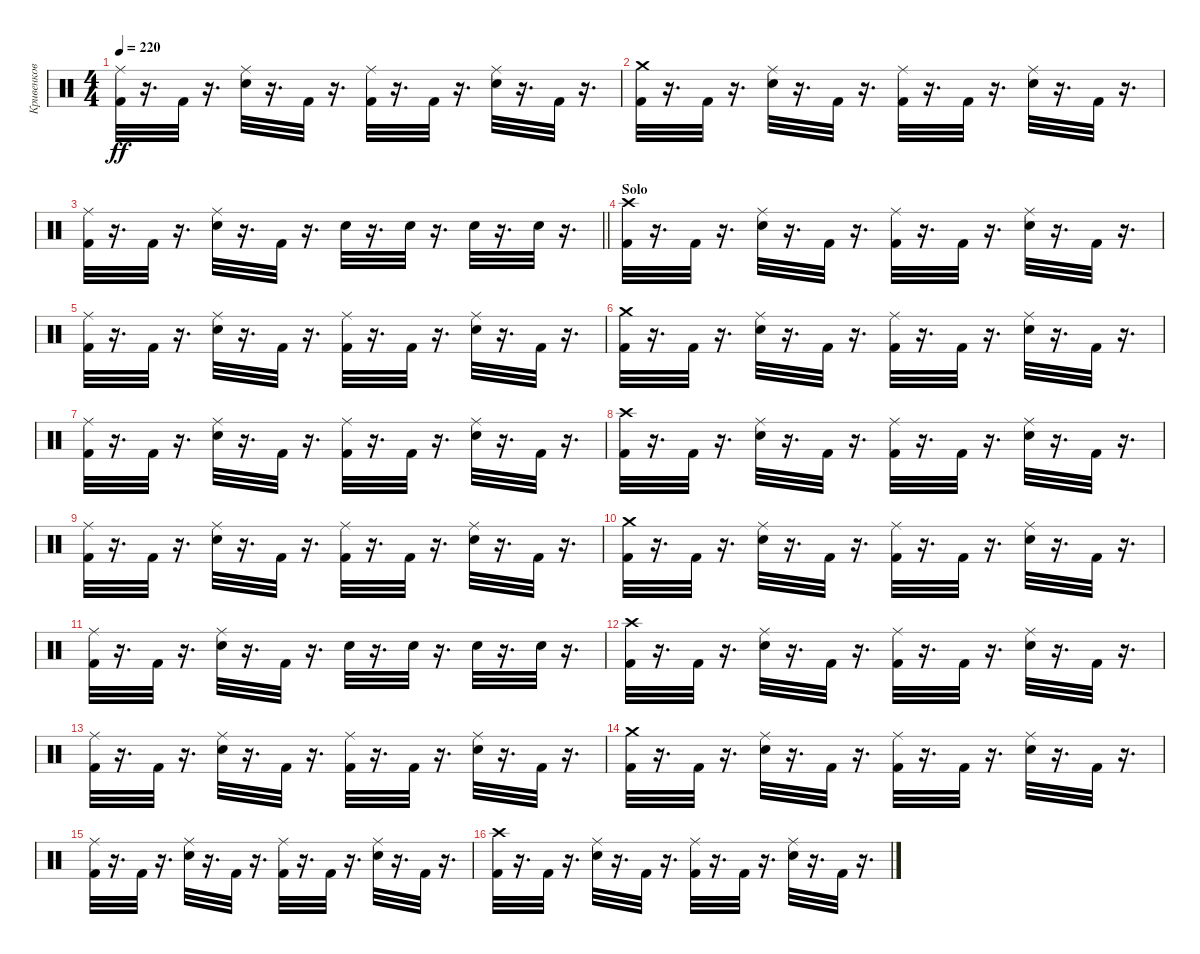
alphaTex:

\track ("Кривенков" "Кривенков") {instrument percussion}
\staff {score}
\articulation defaults
\ts (4 4)
\tempo 220
\clef neutral
\ks c
("Ride (middle)" "Kick (hit) 2").32{dy ff} r.16{d} "Kick (hit) 2".32 r.16{d} ("Ride (middle)" "Electric Snare (hit)").32 r.16{d} "Kick (hit) 2".32 r.16{d} ("Ride (middle)" "Kick (hit) 2").32 r.16{d} "Kick (hit) 2".32 r.16{d} ("Ride (middle)" "Electric Snare (hit)").32 r.16{d} "Kick (hit) 2".32 r.16{d} |
("Crash medium (hit)" "Kick (hit) 2").32 r.16{d} "Kick (hit) 2".32 r.16{d} ("Ride (middle)" "Electric Snare (hit)").32 r.16{d} "Kick (hit) 2".32 r.16{d} ("Ride (middle)" "Kick (hit) 2").32 r.16{d} "Kick (hit) 2".32 r.16{d} ("Ride (middle)" "Electric Snare (hit)").32 r.16{d} "Kick (hit) 2".32 r.16{d} |
\barLineRight lightlight
("Ride (middle)" "Kick (hit) 2").32 r.16{d} "Kick (hit) 2".32 r.16{d} ("Ride (middle)" "Electric Snare (hit)").32 r.16{d} "Kick (hit) 2".32 r.16{d} "Electric Snare (hit)".32 r.16{d} "Electric Snare (hit)".32 r.16{d} "Electric Snare (hit)".32 r.16{d} "Electric Snare (hit)".32 r.16{d} |
\section ("" "Solo")
("Crash high (hit)" "Kick (hit) 2").32 r.16{d} "Kick (hit) 2".32 r.16{d} ("Ride (middle)" "Electric Snare (hit)").32 r.16{d} "Kick (hit) 2".32 r.16{d} ("Ride (middle)" "Kick (hit) 2").32 r.16{d} "Kick (hit) 2".32 r.16{d} ("Ride (middle)" "Electric Snare (hit)").32 r.16{d} "Kick (hit) 2".32 r.16{d} |
("Ride (middle)" "Kick (hit) 2").32 r.16{d} "Kick (hit) 2".32 r.16{d} ("Ride (middle)" "Electric Snare (hit)").32 r.16{d} "Kick (hit) 2".32 r.16{d} ("Ride (middle)" "Kick (hit) 2").32 r.16{d} "Kick (hit) 2".32 r.16{d} ("Ride (middle)" "Electric Snare (hit)").32 r.16{d} "Kick (hit) 2".32 r.16{d} |
("Crash medium (hit)" "Kick (hit) 2").32 r.16{d} "Kick (hit) 2".32 r.16{d} ("Ride (middle)" "Electric Snare (hit)").32 r.16{d} "Kick (hit) 2".32 r.16{d} ("Ride (middle)" "Kick (hit) 2").32 r.16{d} "Kick (hit) 2".32 r.16{d} ("Ride (middle)" "Electric Snare (hit)").32 r.16{d} "Kick (hit) 2".32 r.16{d} |
("Ride (middle)" "Kick (hit) 2").32 r.16{d} "Kick (hit) 2".32 r.16{d} ("Ride (middle)" "Electric Snare (hit)").32 r.16{d} "Kick (hit) 2".32 r.16{d} ("Ride (middle)" "Kick (hit) 2").32 r.16{d} "Kick (hit) 2".32 r.16{d} ("Ride (middle)" "Electric Snare (hit)").32 r.16{d} "Kick (hit) 2".32 r.16{d} |
("Crash high (hit)" "Kick (hit) 2").32 r.16{d} "Kick (hit) 2".32 r.16{d} ("Ride (middle)" "Electric Snare (hit)").32 r.16{d} "Kick (hit) 2".32 r.16{d} ("Ride (middle)" "Kick (hit) 2").32 r.16{d} "Kick (hit) 2".32 r.16{d} ("Ride (middle)" "Electric Snare (hit)").32 r.16{d} "Kick (hit) 2".32 r.16{d} |
("Ride (middle)" "Kick (hit) 2").32 r.16{d} "Kick (hit) 2".32 r.16{d} ("Ride (middle)" "Electric Snare (hit)").32 r.16{d} "Kick (hit) 2".32 r.16{d} ("Ride (middle)" "Kick (hit) 2").32 r.16{d} "Kick (hit) 2".32 r.16{d} ("Ride (middle)" "Electric Snare (hit)").32 r.16{d} "Kick (hit) 2".32 r.16{d} |
("Crash medium (hit)" "Kick (hit) 2").32 r.16{d} "Kick (hit) 2".32 r.16{d} ("Ride (middle)" "Electric Snare (hit)").32 r.16{d} "Kick (hit) 2".32 r.16{d} ("Ride (middle)" "Kick (hit) 2").32 r.16{d} "Kick (hit) 2".32 r.16{d} ("Ride (middle)" "Electric Snare (hit)").32 r.16{d} "Kick (hit) 2".32 r.16{d} |
("Ride (middle)" "Kick (hit) 2").32 r.16{d} "Kick (hit) 2".32 r.16{d} ("Ride (middle)" "Electric Snare (hit)").32 r.16{d} "Kick (hit) 2".32 r.16{d} "Electric Snare (hit)".32 r.16{d} "Electric Snare (hit)".32 r.16{d} "Electric Snare (hit)".32 r.16{d} "Electric Snare (hit)".32 r.16{d} |
("Crash high (hit)" "Kick (hit) 2").32 r.16{d} "Kick (hit) 2".32 r.16{d} ("Ride (middle)" "Electric Snare (hit)").32 r.16{d} "Kick (hit) 2".32 r.16{d} ("Ride (middle)" "Kick (hit) 2").32 r.16{d} "Kick (hit) 2".32 r.16{d} ("Ride (middle)" "Electric Snare (hit)").32 r.16{d} "Kick (hit) 2".32 r.16{d} |
("Ride (middle)" "Kick (hit) 2").32 r.16{d} "Kick (hit) 2".32 r.16{d} ("Ride (middle)" "Electric Snare (hit)").32 r.16{d} "Kick (hit) 2".32 r.16{d} ("Ride (middle)" "Kick (hit) 2").32 r.16{d} "Kick (hit) 2".32 r.16{d} ("Ride (middle)" "Electric Snare (hit)").32 r.16{d} "Kick (hit) 2".32 r.16{d} |
("Crash medium (hit)" "Kick (hit) 2").32 r.16{d} "Kick (hit) 2".32 r.16{d} ("Ride (middle)" "Electric Snare (hit)").32 r.16{d} "Kick (hit) 2".32 r.16{d} ("Ride (middle)" "Kick (hit) 2").32 r.16{d} "Kick (hit) 2".32 r.16{d} ("Ride (middle)" "Electric Snare (hit)").32 r.16{d} "Kick (hit) 2".32 r.16{d} |
("Ride (middle)" "Kick (hit) 2").32 r.16{d} "Kick (hit) 2".32 r.16{d} ("Ride (middle)" "Electric Snare (hit)").32 r.16{d} "Kick (hit) 2".32 r.16{d} ("Ride (middle)" "Kick (hit) 2").32 r.16{d} "Kick (hit) 2".32 r.16{d} ("Ride (middle)" "Electric Snare (hit)").32 r.16{d} "Kick (hit) 2".32 r.16{d} |
("Crash high (hit)" "Kick (hit) 2").32 r.16{d} "Kick (hit) 2".32 r.16{d} ("Ride (middle)" "Electric Snare (hit)").32 r.16{d} "Kick (hit) 2".32 r.16{d} ("Ride (middle)" "Kick (hit) 2").32 r.16{d} "Kick (hit) 2".32 r.16{d} ("Ride (middle)" "Electric Snare (hit)").32 r.16{d} "Kick (hit) 2".32 r.16{d}
